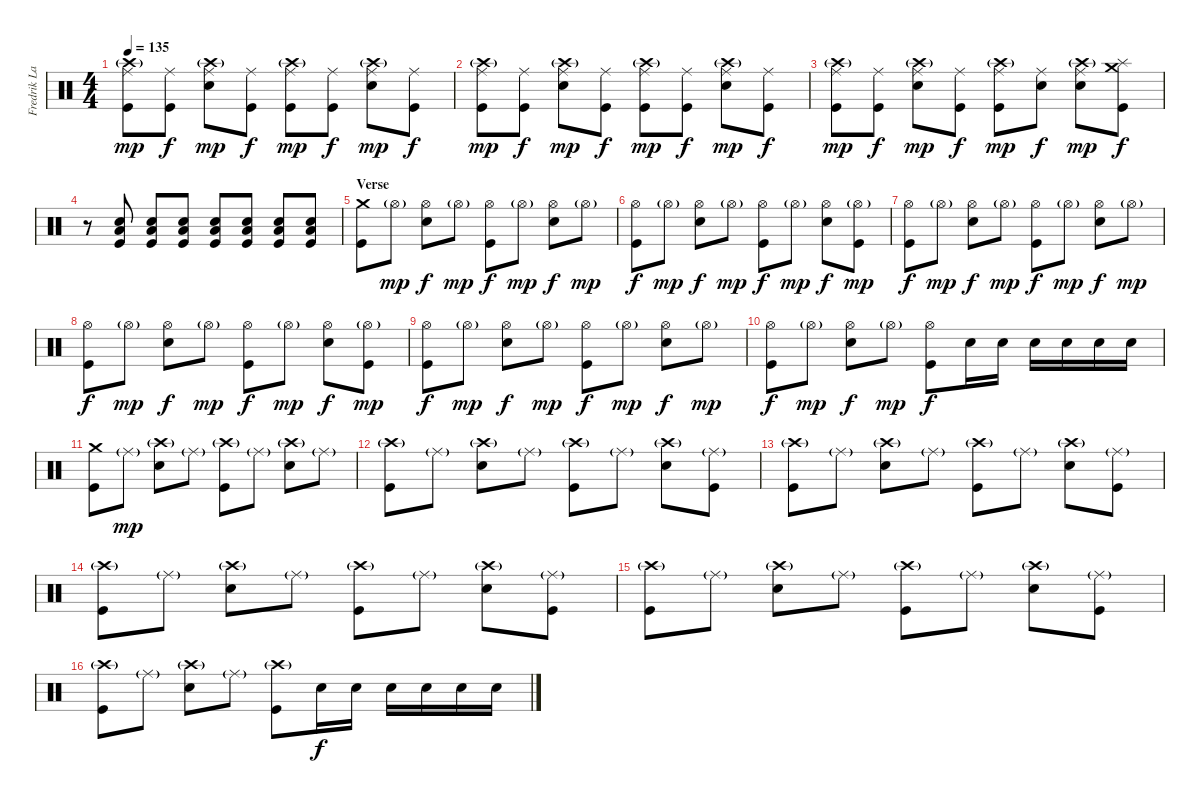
\track ("Fredrik Larzon" "Fredrik La") {instrument percussion}
\staff {score}
\articulation defaults
\ts (4 4)
\tempo 135
\clef neutral
\ks c
("Ride (middle)" "Crash high (hit)"{g} "Kick (hit)").8{dy mp} ("Ride (middle)" "Kick (hit)").8{dy f} ("Ride (middle)" "Crash high (hit)"{g} "Electric Snare (hit)").8{dy mp} ("Ride (middle)" "Kick (hit)").8{dy f} ("Ride (middle)" "Crash high (hit)"{g} "Kick (hit)").8{dy mp} ("Ride (middle)" "Kick (hit)").8{dy f} ("Ride (middle)" "Crash high (hit)"{g} "Electric Snare (hit)").8{dy mp} ("Ride (middle)" "Kick (hit)").8{dy f} |
("Ride (middle)" "Crash high (hit)"{g} "Kick (hit)").8{dy mp} ("Ride (middle)" "Kick (hit)").8{dy f} ("Ride (middle)" "Crash high (hit)"{g} "Electric Snare (hit)").8{dy mp} ("Ride (middle)" "Kick (hit)").8{dy f} ("Ride (middle)" "Crash high (hit)"{g} "Kick (hit)").8{dy mp} ("Ride (middle)" "Kick (hit)").8{dy f} ("Ride (middle)" "Crash high (hit)"{g} "Electric Snare (hit)").8{dy mp} ("Ride (middle)" "Kick (hit)").8{dy f} |
("Ride (middle)" "Crash high (hit)"{g} "Kick (hit)").8{dy mp} ("Ride (middle)" "Kick (hit)").8{dy f} ("Ride (middle)" "Crash high (hit)"{g} "Electric Snare (hit)").8{dy mp} ("Ride (middle)" "Kick (hit)").8{dy f} ("Ride (middle)" "Crash high (hit)"{g} "Kick (hit)").8{dy mp} ("Ride (middle)" "Electric Snare (hit)").8{dy f} ("Ride (middle)" "Crash high (hit)"{g} "Electric Snare (hit)").8{dy mp} ("Splash (hit)" "Crash medium (hit)" "Kick (hit)").8{dy f} |
r.8 ("Electric Snare (hit)" "Low Floor Tom (hit)" "Kick (hit)").8 ("Electric Snare (hit)" "Low Floor Tom (hit)" "Kick (hit)").8 ("Electric Snare (hit)" "Low Floor Tom (hit)" "Kick (hit)").8 ("Electric Snare (hit)" "Low Floor Tom (hit)" "Kick (hit)").8 ("Electric Snare (hit)" "Low Floor Tom (hit)" "Kick (hit)").8 ("Electric Snare (hit)" "Low Floor Tom (hit)" "Kick (hit)").8 ("Electric Snare (hit)" "Low Floor Tom (hit)" "Kick (hit)").8 |
\section ("" "Verse")
("Crash medium (hit)" "Kick (hit)").8 "Hi-Hat (open)"{g}.8{dy mp} ("Hi-Hat (open)" "Electric Snare (hit)").8{dy f} "Hi-Hat (open)"{g}.8{dy mp} ("Hi-Hat (open)" "Kick (hit)").8{dy f} "Hi-Hat (open)"{g}.8{dy mp} ("Hi-Hat (open)" "Electric Snare (hit)").8{dy f} "Hi-Hat (open)"{g}.8{dy mp} |
("Hi-Hat (open)" "Kick (hit)").8{dy f} "Hi-Hat (open)"{g}.8{dy mp} ("Hi-Hat (open)" "Electric Snare (hit)").8{dy f} "Hi-Hat (open)"{g}.8{dy mp} ("Hi-Hat (open)" "Kick (hit)").8{dy f} "Hi-Hat (open)"{g}.8{dy mp} ("Hi-Hat (open)" "Electric Snare (hit)").8{dy f} ("Hi-Hat (open)"{g} "Kick (hit)").8{dy mp} |
("Hi-Hat (open)" "Kick (hit)").8{dy f} "Hi-Hat (open)"{g}.8{dy mp} ("Hi-Hat (open)" "Electric Snare (hit)").8{dy f} "Hi-Hat (open)"{g}.8{dy mp} ("Hi-Hat (open)" "Kick (hit)").8{dy f} "Hi-Hat (open)"{g}.8{dy mp} ("Hi-Hat (open)" "Electric Snare (hit)").8{dy f} "Hi-Hat (open)"{g}.8{dy mp} |
("Hi-Hat (open)" "Kick (hit)").8{dy f} "Hi-Hat (open)"{g}.8{dy mp} ("Hi-Hat (open)" "Electric Snare (hit)").8{dy f} "Hi-Hat (open)"{g}.8{dy mp} ("Hi-Hat (open)" "Kick (hit)").8{dy f} "Hi-Hat (open)"{g}.8{dy mp} ("Hi-Hat (open)" "Electric Snare (hit)").8{dy f} ("Hi-Hat (open)"{g} "Kick (hit)").8{dy mp} |
("Hi-Hat (open)" "Kick (hit)").8{dy f} "Hi-Hat (open)"{g}.8{dy mp} ("Hi-Hat (open)" "Electric Snare (hit)").8{dy f} "Hi-Hat (open)"{g}.8{dy mp} ("Hi-Hat (open)" "Kick (hit)").8{dy f} "Hi-Hat (open)"{g}.8{dy mp} ("Hi-Hat (open)" "Electric Snare (hit)").8{dy f} "Hi-Hat (open)"{g}.8{dy mp} |
("Hi-Hat (open)" "Kick (hit)").8{dy f} "Hi-Hat (open)"{g}.8{dy mp} ("Hi-Hat (open)" "Electric Snare (hit)").8{dy f} "Hi-Hat (open)"{g}.8{dy mp} ("Hi-Hat (open)" "Kick (hit)").8{dy f} "Electric Snare (hit)".16 "Electric Snare (hit)".16 "Electric Snare (hit)".16 "Electric Snare (hit)".16 "Electric Snare (hit)".16 "Electric Snare (hit)".16 |
("Crash medium (hit)" "Kick (hit)").8 "Ride (middle)"{g}.8{dy mp} ("Crash high (hit)"{g} "Electric Snare (hit)").8 "Ride (middle)"{g}.8 ("Crash high (hit)"{g} "Kick (hit)").8 "Ride (middle)"{g}.8 ("Crash high (hit)"{g} "Electric Snare (hit)").8 "Ride (middle)"{g}.8 |
("Crash high (hit)"{g} "Kick (hit)").8 "Ride (middle)"{g}.8 ("Crash high (hit)"{g} "Electric Snare (hit)").8 "Ride (middle)"{g}.8 ("Crash high (hit)"{g} "Kick (hit)").8 "Ride (middle)"{g}.8 ("Crash high (hit)"{g} "Electric Snare (hit)").8 ("Ride (middle)"{g} "Kick (hit)").8 |
("Crash high (hit)"{g} "Kick (hit)").8 "Ride (middle)"{g}.8 ("Crash high (hit)"{g} "Electric Snare (hit)").8 "Ride (middle)"{g}.8 ("Crash high (hit)"{g} "Kick (hit)").8 "Ride (middle)"{g}.8 ("Crash high (hit)"{g} "Electric Snare (hit)").8 ("Ride (middle)"{g} "Kick (hit)").8 |
("Crash high (hit)"{g} "Kick (hit)").8 "Ride (middle)"{g}.8 ("Crash high (hit)"{g} "Electric Snare (hit)").8 "Ride (middle)"{g}.8 ("Crash high (hit)"{g} "Kick (hit)").8 "Ride (middle)"{g}.8 ("Crash high (hit)"{g} "Electric Snare (hit)").8 ("Ride (middle)"{g} "Kick (hit)").8 |
("Crash high (hit)"{g} "Kick (hit)").8 "Ride (middle)"{g}.8 ("Crash high (hit)"{g} "Electric Snare (hit)").8 "Ride (middle)"{g}.8 ("Crash high (hit)"{g} "Kick (hit)").8 "Ride (middle)"{g}.8 ("Crash high (hit)"{g} "Electric Snare (hit)").8 ("Ride (middle)"{g} "Kick (hit)").8 |
("Crash high (hit)"{g} "Kick (hit)").8 "Ride (middle)"{g}.8 ("Crash high (hit)"{g} "Electric Snare (hit)").8 "Ride (middle)"{g}.8 ("Crash high (hit)"{g} "Kick (hit)").8 "Electric Snare (hit)".16{dy f} "Electric Snare (hit)".16 "Electric Snare (hit)".16 "Electric Snare (hit)".16 "Electric Snare (hit)".16 "Electric Snare (hit)".16
